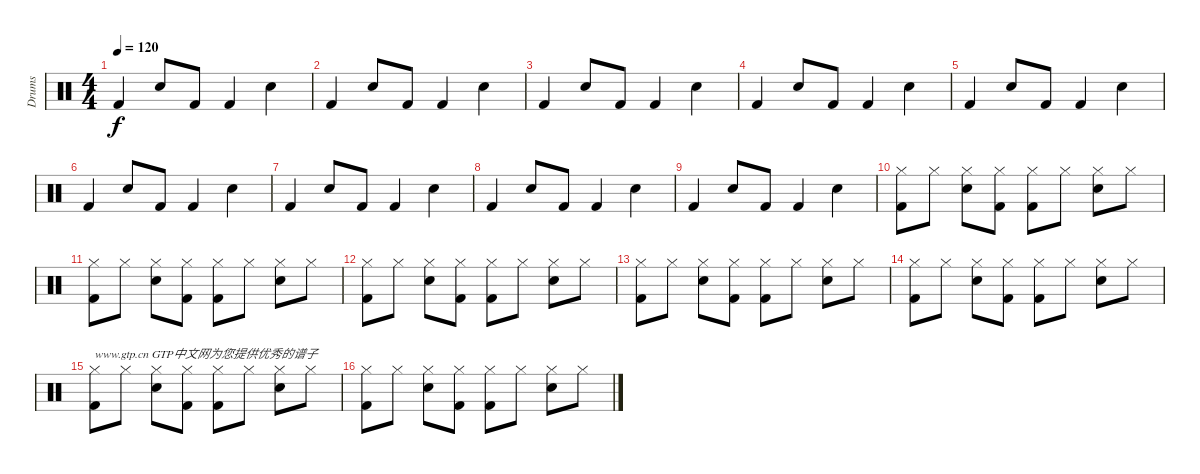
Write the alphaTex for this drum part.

\track ("Drums" "Drums") {instrument percussion}
\staff {score}
\articulation defaults
\ts (4 4)
\tempo 120
\clef neutral
\ks c "Kick (hit) 2".4{dy f} "Snare (hit) 2".8 "Kick (hit) 2".8 "Kick (hit) 2".4 "Snare (hit) 2".4
|
"Kick (hit) 2".4 "Snare (hit) 2".8 "Kick (hit) 2".8 "Kick (hit) 2".4 "Snare (hit) 2".4 |
"Kick (hit) 2".4 "Snare (hit) 2".8 "Kick (hit) 2".8 "Kick (hit) 2".4 "Snare (hit) 2".4 |
"Kick (hit) 2".4 "Snare (hit) 2".8 "Kick (hit) 2".8 "Kick (hit) 2".4 "Snare (hit) 2".4 |
"Kick (hit) 2".4 "Snare (hit) 2".8 "Kick (hit) 2".8 "Kick (hit) 2".4 "Snare (hit) 2".4 |
"Kick (hit) 2".4 "Snare (hit) 2".8 "Kick (hit) 2".8 "Kick (hit) 2".4 "Snare (hit) 2".4 |
"Kick (hit) 2".4 "Snare (hit) 2".8 "Kick (hit) 2".8 "Kick (hit) 2".4 "Snare (hit) 2".4 |
"Kick (hit) 2".4 "Snare (hit) 2".8 "Kick (hit) 2".8 "Kick (hit) 2".4 "Snare (hit) 2".4 |
"Kick (hit) 2".4 "Snare (hit) 2".8 "Kick (hit) 2".8 "Kick (hit) 2".4 "Snare (hit) 2".4 |
("Hi-Hat (closed)" "Kick (hit) 2").8 "Hi-Hat (closed)".8 ("Hi-Hat (closed)" "Snare (hit) 2").8 ("Hi-Hat (closed)" "Kick (hit) 2").8 ("Hi-Hat (closed)" "Kick (hit) 2").8 "Hi-Hat (closed)".8 ("Hi-Hat (closed)" "Snare (hit) 2").8 "Hi-Hat (closed)".8 |
("Hi-Hat (closed)" "Kick (hit) 2").8 "Hi-Hat (closed)".8 ("Hi-Hat (closed)" "Snare (hit) 2").8 ("Hi-Hat (closed)" "Kick (hit) 2").8 ("Hi-Hat (closed)" "Kick (hit) 2").8 "Hi-Hat (closed)".8 ("Hi-Hat (closed)" "Snare (hit) 2").8 "Hi-Hat (closed)".8 |
("Hi-Hat (closed)" "Kick (hit) 2").8 "Hi-Hat (closed)".8 ("Hi-Hat (closed)" "Snare (hit) 2").8 ("Hi-Hat (closed)" "Kick (hit) 2").8 ("Hi-Hat (closed)" "Kick (hit) 2").8 "Hi-Hat (closed)".8 ("Hi-Hat (closed)" "Snare (hit) 2").8 "Hi-Hat (closed)".8 |
("Hi-Hat (closed)" "Kick (hit) 2").8 "Hi-Hat (closed)".8 ("Hi-Hat (closed)" "Snare (hit) 2").8 ("Hi-Hat (closed)" "Kick (hit) 2").8 ("Hi-Hat (closed)" "Kick (hit) 2").8 "Hi-Hat (closed)".8 ("Hi-Hat (closed)" "Snare (hit) 2").8 "Hi-Hat (closed)".8 |
("Hi-Hat (closed)" "Kick (hit) 2").8 "Hi-Hat (closed)".8 ("Hi-Hat (closed)" "Snare (hit) 2").8 ("Hi-Hat (closed)" "Kick (hit) 2").8 ("Hi-Hat (closed)" "Kick (hit) 2").8 "Hi-Hat (closed)".8 ("Hi-Hat (closed)" "Snare (hit) 2").8 "Hi-Hat (closed)".8 |
("Hi-Hat (closed)" "Kick (hit) 2").8{txt "www.gtp.cn GTP中文网为您提供优秀的谱子"} "Hi-Hat (closed)".8 ("Hi-Hat (closed)" "Snare (hit) 2").8 ("Hi-Hat (closed)" "Kick (hit) 2").8 ("Hi-Hat (closed)" "Kick (hit) 2").8 "Hi-Hat (closed)".8 ("Hi-Hat (closed)" "Snare (hit) 2").8 "Hi-Hat (closed)".8 |
("Hi-Hat (closed)" "Kick (hit) 2").8 "Hi-Hat (closed)".8 ("Hi-Hat (closed)" "Snare (hit) 2").8 ("Hi-Hat (closed)" "Kick (hit) 2").8 ("Hi-Hat (closed)" "Kick (hit) 2").8 "Hi-Hat (closed)".8 ("Hi-Hat (closed)" "Snare (hit) 2").8 "Hi-Hat (closed)".8
